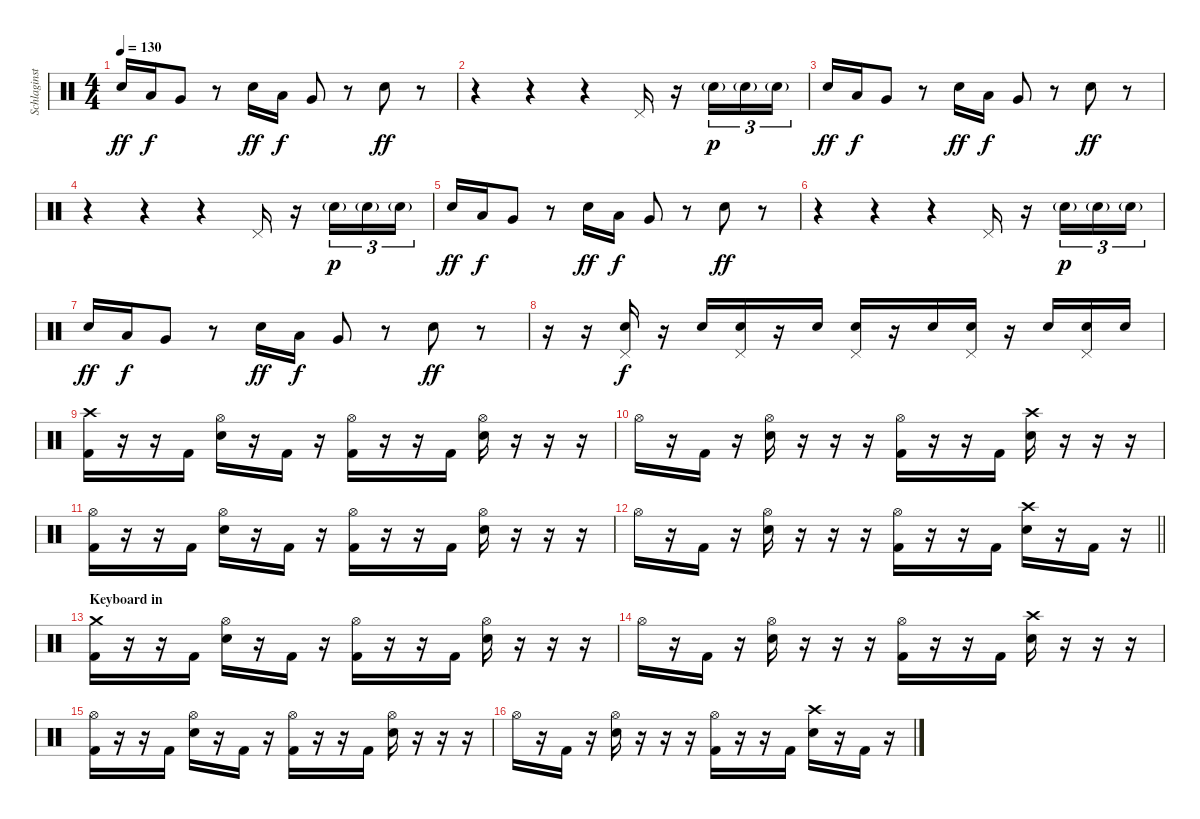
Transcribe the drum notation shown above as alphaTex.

\track ("Schlaginstrumente - Auswahl" "Schlaginst") {instrument percussion}
\staff {score}
\articulation defaults
\ts (4 4)
\tempo 130
\clef neutral
\ks c "Electric Snare (hit)".16{dy ff} "Low Tom (hit)".16{dy f} "Very Low Tom (hit)".8
r.8 "Electric Snare (hit)".16{dy ff} "Low Tom (hit)".16{dy f} "Very Low Tom (hit)".8 r.8 "Electric Snare (hit)".8{dy ff} r.8 |
r.4 r.4 r.4 "Pedal Hi-Hat (hit)".16 r.16 "Electric Snare (hit)"{g}.16{tu (3 2) dy p} "Electric Snare (hit)"{g}.16{tu (3 2)} "Electric Snare (hit)"{g}.16{tu (3 2)} |
"Electric Snare (hit)".16{dy ff} "Low Tom (hit)".16{dy f} "Very Low Tom (hit)".8 r.8 "Electric Snare (hit)".16{dy ff} "Low Tom (hit)".16{dy f} "Very Low Tom (hit)".8 r.8 "Electric Snare (hit)".8{dy ff} r.8 |
r.4 r.4 r.4 "Pedal Hi-Hat (hit)".16 r.16 "Electric Snare (hit)"{g}.16{tu (3 2) dy p} "Electric Snare (hit)"{g}.16{tu (3 2)} "Electric Snare (hit)"{g}.16{tu (3 2)} |
"Electric Snare (hit)".16{dy ff} "Low Tom (hit)".16{dy f} "Very Low Tom (hit)".8 r.8 "Electric Snare (hit)".16{dy ff} "Low Tom (hit)".16{dy f} "Very Low Tom (hit)".8 r.8 "Electric Snare (hit)".8{dy ff} r.8 |
r.4 r.4 r.4 "Pedal Hi-Hat (hit)".16 r.16 "Electric Snare (hit)"{g}.16{tu (3 2) dy p} "Electric Snare (hit)"{g}.16{tu (3 2)} "Electric Snare (hit)"{g}.16{tu (3 2)} |
"Electric Snare (hit)".16{dy ff} "Low Tom (hit)".16{dy f} "Very Low Tom (hit)".8 r.8 "Electric Snare (hit)".16{dy ff} "Low Tom (hit)".16{dy f} "Very Low Tom (hit)".8 r.8 "Electric Snare (hit)".8{dy ff} r.8 |
r.16 r.16 ("Pedal Hi-Hat (hit)" "Electric Snare (hit)").16{dy f} r.16 "Electric Snare (hit)".16 ("Pedal Hi-Hat (hit)" "Electric Snare (hit)").16 r.16 "Electric Snare (hit)".16 ("Pedal Hi-Hat (hit)" "Electric Snare (hit)").16 r.16 "Electric Snare (hit)".16 ("Pedal Hi-Hat (hit)" "Electric Snare (hit)").16 r.16 "Electric Snare (hit)".16 ("Pedal Hi-Hat (hit)" "Electric Snare (hit)").16 "Electric Snare (hit)".16 |
("Crash high (hit)" "Kick (hit) 2").16 r.16 r.16 "Kick (hit) 2".16 ("Hi-Hat (open)" "Electric Snare (hit)").16 r.16 "Kick (hit) 2".16 r.16 ("Hi-Hat (open)" "Kick (hit) 2").16 r.16 r.16 "Kick (hit) 2".16 ("Hi-Hat (open)" "Electric Snare (hit)").16 r.16 r.16 r.16 |
"Hi-Hat (open)".16 r.16 "Kick (hit) 2".16 r.16 ("Hi-Hat (open)" "Electric Snare (hit)").16 r.16 r.16 r.16 ("Hi-Hat (open)" "Kick (hit) 2").16 r.16 r.16 "Kick (hit) 2".16 ("Crash high (hit)" "Electric Snare (hit)").16 r.16 r.16 r.16 |
("Hi-Hat (open)" "Kick (hit) 2").16 r.16 r.16 "Kick (hit) 2".16 ("Hi-Hat (open)" "Electric Snare (hit)").16 r.16 "Kick (hit) 2".16 r.16 ("Hi-Hat (open)" "Kick (hit) 2").16 r.16 r.16 "Kick (hit) 2".16 ("Hi-Hat (open)" "Electric Snare (hit)").16 r.16 r.16 r.16 |
\barLineRight lightlight "Hi-Hat (open)".16
r.16 "Kick (hit) 2".16 r.16 ("Hi-Hat (open)" "Electric Snare (hit)").16 r.16 r.16 r.16 ("Hi-Hat (open)" "Kick (hit) 2").16 r.16 r.16 "Kick (hit) 2".16 ("Crash high (hit)" "Electric Snare (hit)").16 r.16 "Kick (hit) 2".16 r.16 |
\section ("" "Keyboard in")
("Crash medium (hit)" "Kick (hit) 2").16 r.16 r.16 "Kick (hit) 2".16 ("Hi-Hat (open)" "Electric Snare (hit)").16 r.16 "Kick (hit) 2".16 r.16 ("Hi-Hat (open)" "Kick (hit) 2").16 r.16 r.16 "Kick (hit) 2".16 ("Hi-Hat (open)" "Electric Snare (hit)").16 r.16 r.16 r.16 |
"Hi-Hat (open)".16 r.16 "Kick (hit) 2".16 r.16 ("Hi-Hat (open)" "Electric Snare (hit)").16 r.16 r.16 r.16 ("Hi-Hat (open)" "Kick (hit) 2").16 r.16 r.16 "Kick (hit) 2".16 ("Crash high (hit)" "Electric Snare (hit)").16 r.16 r.16 r.16 |
("Hi-Hat (open)" "Kick (hit) 2").16 r.16 r.16 "Kick (hit) 2".16 ("Hi-Hat (open)" "Electric Snare (hit)").16 r.16 "Kick (hit) 2".16 r.16 ("Hi-Hat (open)" "Kick (hit) 2").16 r.16 r.16 "Kick (hit) 2".16 ("Hi-Hat (open)" "Electric Snare (hit)").16 r.16 r.16 r.16 |
"Hi-Hat (open)".16 r.16 "Kick (hit) 2".16 r.16 ("Hi-Hat (open)" "Electric Snare (hit)").16 r.16 r.16 r.16 ("Hi-Hat (open)" "Kick (hit) 2").16 r.16 r.16 "Kick (hit) 2".16 ("Crash high (hit)" "Electric Snare (hit)").16 r.16 "Kick (hit) 2".16 r.16
